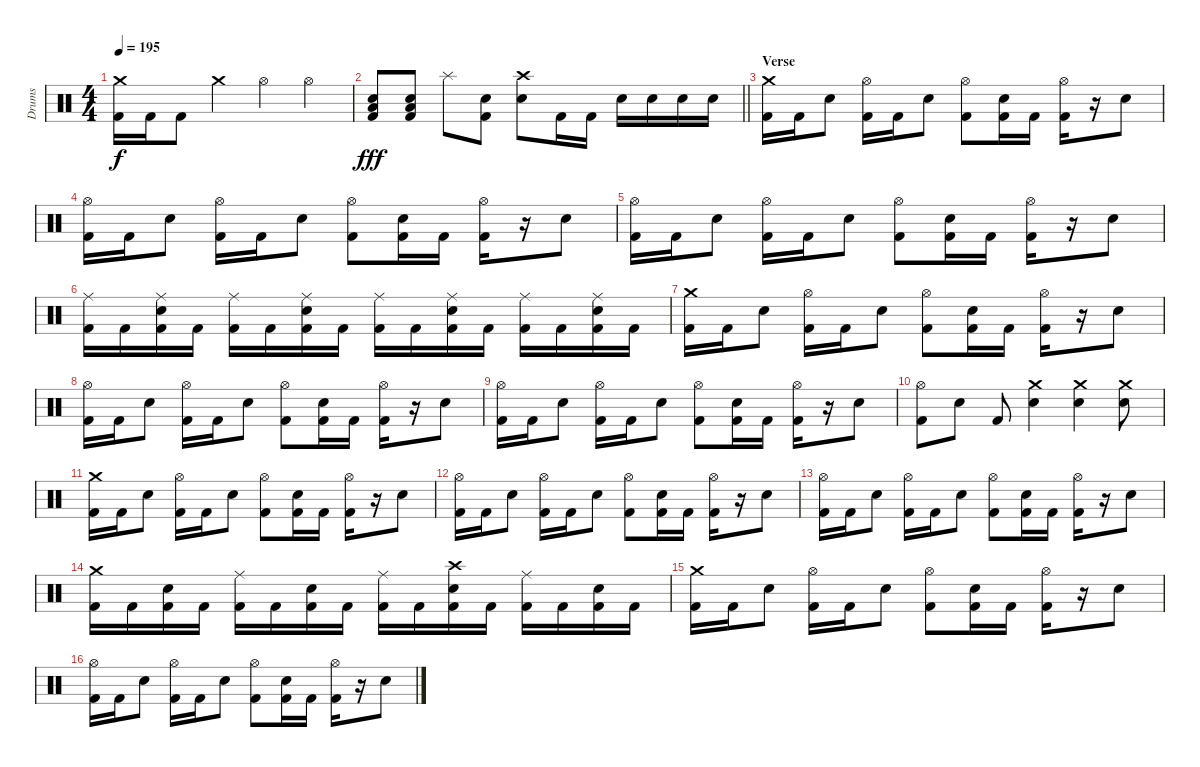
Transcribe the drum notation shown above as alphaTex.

\track ("Drums" "Drums") {instrument percussion}
\staff {score}
\articulation defaults
\ts (4 4)
\tempo 195
\clef neutral
\ks c
("Crash medium (hit)" "Kick (hit) 2").16{dy f} "Kick (hit) 2".16 "Kick (hit) 2".8 "Crash medium (hit)".4 "Hi-Hat (open)".4 "Hi-Hat (open)".4 |
\barLineRight lightlight
("Low Floor Tom (hit)" "Electric Snare (hit)" "Kick (hit) 2").8{dy fff} ("Low Floor Tom (hit)" "Electric Snare (hit)" "Kick (hit) 2").8 "Splash (hit)".8 ("Electric Snare (hit)" "Kick (hit) 2").8 ("Crash high (hit)" "Electric Snare (hit)").8 "Kick (hit) 2".16 "Kick (hit) 2".16 "Electric Snare (hit)".16 "Electric Snare (hit)".16 "Electric Snare (hit)".16 "Electric Snare (hit)".16 |
\section ("" "Verse")
("Crash medium (hit)" "Kick (hit) 2").16 "Kick (hit) 2".16 "Electric Snare (hit)".8 ("Hi-Hat (open)" "Kick (hit) 2").16 "Kick (hit) 2".16 "Electric Snare (hit)".8 ("Hi-Hat (open)" "Kick (hit) 2").8 ("Electric Snare (hit)" "Kick (hit) 2").16 "Kick (hit) 2".16 ("Hi-Hat (open)" "Kick (hit) 2").16 r.16 "Electric Snare (hit)".8 |
("Hi-Hat (open)" "Kick (hit) 2").16 "Kick (hit) 2".16 "Electric Snare (hit)".8 ("Hi-Hat (open)" "Kick (hit) 2").16 "Kick (hit) 2".16 "Electric Snare (hit)".8 ("Hi-Hat (open)" "Kick (hit) 2").8 ("Electric Snare (hit)" "Kick (hit) 2").16 "Kick (hit) 2".16 ("Hi-Hat (open)" "Kick (hit) 2").16 r.16 "Electric Snare (hit)".8 |
("Hi-Hat (open)" "Kick (hit) 2").16 "Kick (hit) 2".16 "Electric Snare (hit)".8 ("Hi-Hat (open)" "Kick (hit) 2").16 "Kick (hit) 2".16 "Electric Snare (hit)".8 ("Hi-Hat (open)" "Kick (hit) 2").8 ("Electric Snare (hit)" "Kick (hit) 2").16 "Kick (hit) 2".16 ("Hi-Hat (open)" "Kick (hit) 2").16 r.16 "Electric Snare (hit)".8 |
("Ride (middle)" "Kick (hit) 2").16 "Kick (hit) 2".16 ("Ride (middle)" "Electric Snare (hit)" "Kick (hit) 2").16 "Kick (hit) 2".16 ("Ride (middle)" "Kick (hit) 2").16 "Kick (hit) 2".16 ("Ride (middle)" "Electric Snare (hit)" "Kick (hit) 2").16 "Kick (hit) 2".16 ("Ride (middle)" "Kick (hit) 2").16 "Kick (hit) 2".16 ("Ride (middle)" "Electric Snare (hit)" "Kick (hit) 2").16 "Kick (hit) 2".16 ("Ride (middle)" "Kick (hit) 2").16 "Kick (hit) 2".16 ("Ride (middle)" "Electric Snare (hit)" "Kick (hit) 2").16 "Kick (hit) 2".16 |
("Crash medium (hit)" "Kick (hit) 2").16 "Kick (hit) 2".16 "Electric Snare (hit)".8 ("Hi-Hat (open)" "Kick (hit) 2").16 "Kick (hit) 2".16 "Electric Snare (hit)".8 ("Hi-Hat (open)" "Kick (hit) 2").8 ("Electric Snare (hit)" "Kick (hit) 2").16 "Kick (hit) 2".16 ("Hi-Hat (open)" "Kick (hit) 2").16 r.16 "Electric Snare (hit)".8 |
("Hi-Hat (open)" "Kick (hit) 2").16 "Kick (hit) 2".16 "Electric Snare (hit)".8 ("Hi-Hat (open)" "Kick (hit) 2").16 "Kick (hit) 2".16 "Electric Snare (hit)".8 ("Hi-Hat (open)" "Kick (hit) 2").8 ("Electric Snare (hit)" "Kick (hit) 2").16 "Kick (hit) 2".16 ("Hi-Hat (open)" "Kick (hit) 2").16 r.16 "Electric Snare (hit)".8 |
("Hi-Hat (open)" "Kick (hit) 2").16 "Kick (hit) 2".16 "Electric Snare (hit)".8 ("Hi-Hat (open)" "Kick (hit) 2").16 "Kick (hit) 2".16 "Electric Snare (hit)".8 ("Hi-Hat (open)" "Kick (hit) 2").8 ("Electric Snare (hit)" "Kick (hit) 2").16 "Kick (hit) 2".16 ("Hi-Hat (open)" "Kick (hit) 2").16 r.16 "Electric Snare (hit)".8 |
("Hi-Hat (open)" "Kick (hit) 2").8 "Electric Snare (hit)".8 "Kick (hit) 2".8 ("Crash medium (hit)" "Electric Snare (hit)").4 ("Crash medium (hit)" "Electric Snare (hit)").4 ("Crash medium (hit)" "Electric Snare (hit)").8 |
("Crash medium (hit)" "Kick (hit) 2").16 "Kick (hit) 2".16 "Electric Snare (hit)".8 ("Hi-Hat (open)" "Kick (hit) 2").16 "Kick (hit) 2".16 "Electric Snare (hit)".8 ("Hi-Hat (open)" "Kick (hit) 2").8 ("Electric Snare (hit)" "Kick (hit) 2").16 "Kick (hit) 2".16 ("Hi-Hat (open)" "Kick (hit) 2").16 r.16 "Electric Snare (hit)".8 |
("Hi-Hat (open)" "Kick (hit) 2").16 "Kick (hit) 2".16 "Electric Snare (hit)".8 ("Hi-Hat (open)" "Kick (hit) 2").16 "Kick (hit) 2".16 "Electric Snare (hit)".8 ("Hi-Hat (open)" "Kick (hit) 2").8 ("Electric Snare (hit)" "Kick (hit) 2").16 "Kick (hit) 2".16 ("Hi-Hat (open)" "Kick (hit) 2").16 r.16 "Electric Snare (hit)".8 |
("Hi-Hat (open)" "Kick (hit) 2").16 "Kick (hit) 2".16 "Electric Snare (hit)".8 ("Hi-Hat (open)" "Kick (hit) 2").16 "Kick (hit) 2".16 "Electric Snare (hit)".8 ("Hi-Hat (open)" "Kick (hit) 2").8 ("Electric Snare (hit)" "Kick (hit) 2").16 "Kick (hit) 2".16 ("Hi-Hat (open)" "Kick (hit) 2").16 r.16 "Electric Snare (hit)".8 |
("Crash medium (hit)" "Kick (hit) 2").16 "Kick (hit) 2".16 ("Electric Snare (hit)" "Kick (hit) 2").16 "Kick (hit) 2".16 ("Ride (middle)" "Kick (hit) 2").16 "Kick (hit) 2".16 ("Electric Snare (hit)" "Kick (hit) 2").16 "Kick (hit) 2".16 ("Ride (middle)" "Kick (hit) 2").16 "Kick (hit) 2".16 ("Crash high (hit)" "Electric Snare (hit)" "Kick (hit) 2").16 "Kick (hit) 2".16 ("Ride (middle)" "Kick (hit) 2").16 "Kick (hit) 2".16 ("Electric Snare (hit)" "Kick (hit) 2").16 "Kick (hit) 2".16 |
("Crash medium (hit)" "Kick (hit) 2").16 "Kick (hit) 2".16 "Electric Snare (hit)".8 ("Hi-Hat (open)" "Kick (hit) 2").16 "Kick (hit) 2".16 "Electric Snare (hit)".8 ("Hi-Hat (open)" "Kick (hit) 2").8 ("Electric Snare (hit)" "Kick (hit) 2").16 "Kick (hit) 2".16 ("Hi-Hat (open)" "Kick (hit) 2").16 r.16 "Electric Snare (hit)".8 |
("Hi-Hat (open)" "Kick (hit) 2").16 "Kick (hit) 2".16 "Electric Snare (hit)".8 ("Hi-Hat (open)" "Kick (hit) 2").16 "Kick (hit) 2".16 "Electric Snare (hit)".8 ("Hi-Hat (open)" "Kick (hit) 2").8 ("Electric Snare (hit)" "Kick (hit) 2").16 "Kick (hit) 2".16 ("Hi-Hat (open)" "Kick (hit) 2").16 r.16 "Electric Snare (hit)".8
